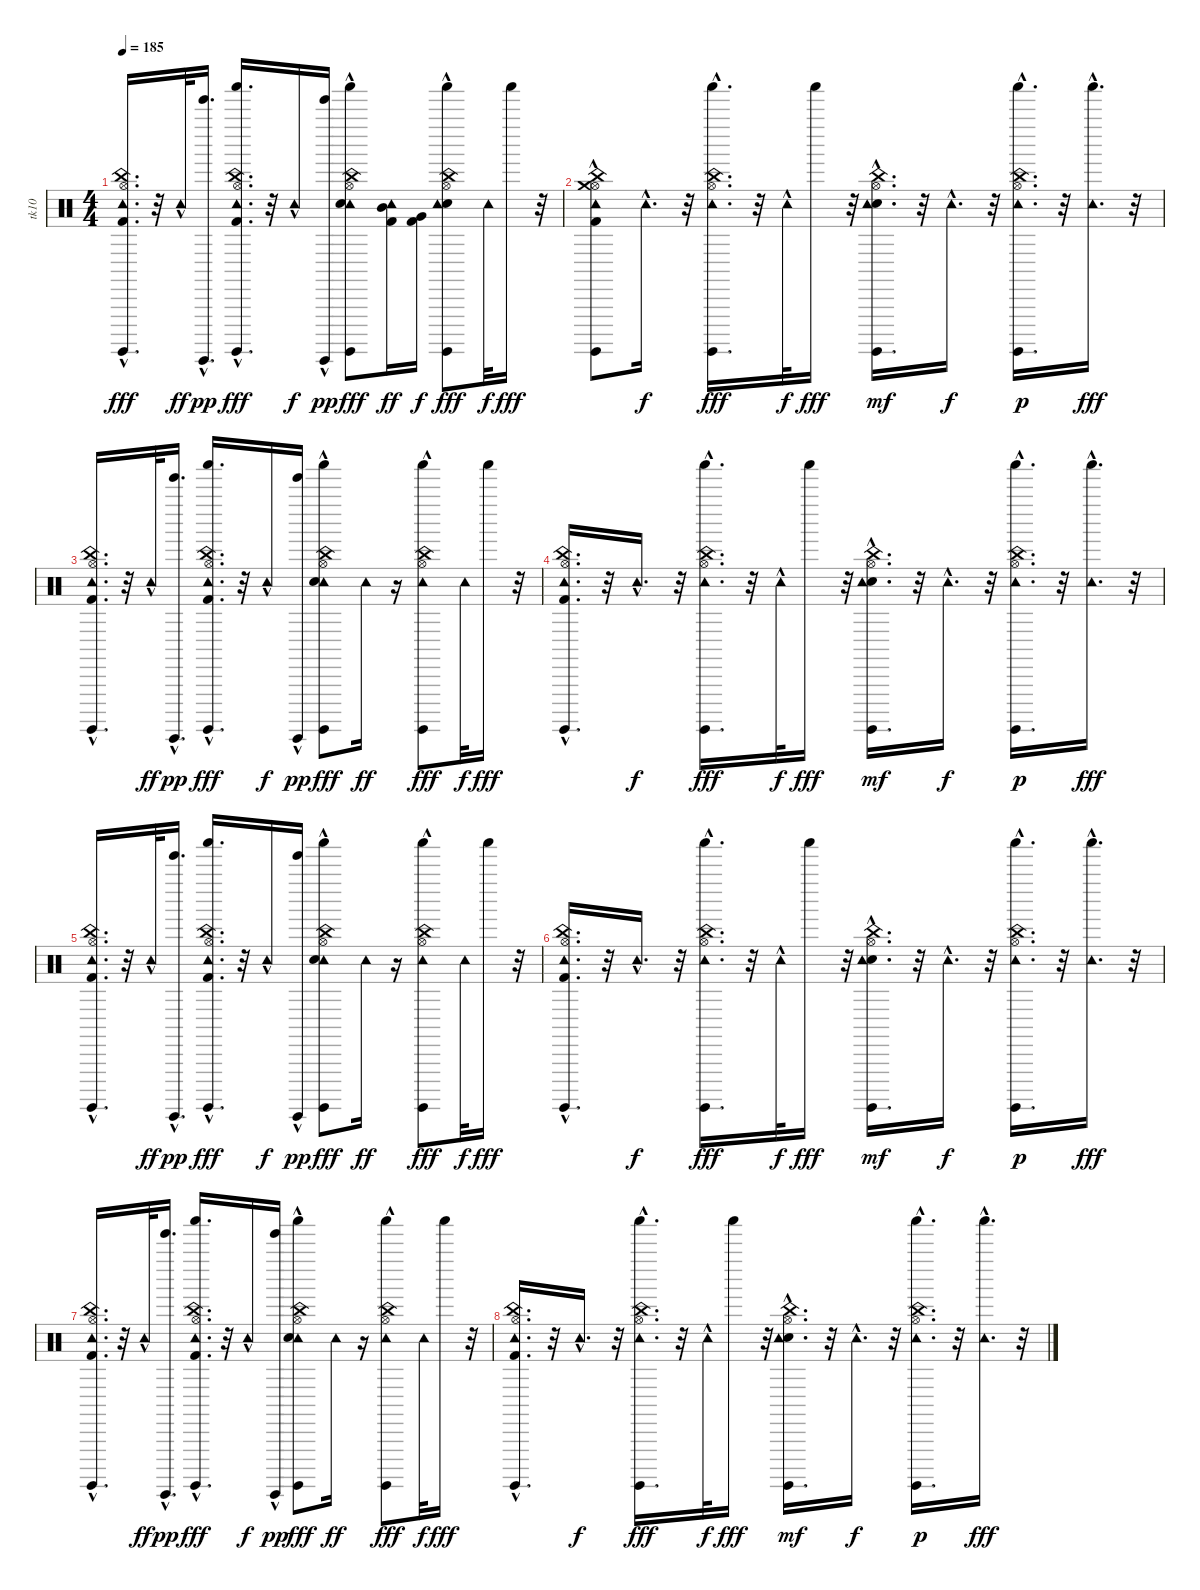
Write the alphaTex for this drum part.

\track ("tk10" "tk10") {instrument percussion}
\staff {score}
\articulation defaults
\ts (4 4)
\tempo 185
\clef neutral
\ks c
("Kick (hit) 2"{hac} "Hi-Hat (open)" "China (hit)" "Surdo (hit)" "Tambourine (hit)"{hac}).16{d dy fff} r.32 "Tambourine (hit)"{hac}.32{dy ff} ("Guiro (hit)" "Tinkle Bell (hit)"{hac}).16{d dy pp} ("Tambourine (hit)"{hac} "Shaker (hit)" "Kick (hit) 2"{hac} "Hi-Hat (open)" "China (hit)" "Surdo (hit)").16{d dy fff} r.32 "Tambourine (hit)"{hac}.16{dy f} ("Guiro (hit)" "Tinkle Bell (hit)"{hac}).16{dy pp} ("Tambourine (hit)"{hac} "Electric Snare (hit)" "Hi-Hat (open)" "China (hit)" "Shaker (hit)"{hac} "Surdo (hit)").8{dy fff} ("Tambourine (hit)" "Mid Tom (hit)" "Kick (hit) 2").16{dy ff} ("Kick (hit) 2" "Very Low Tom (hit)").16{dy f} ("Electric Snare (hit)"{hac} "Tambourine (hit)" "Shaker (hit)" "Hi-Hat (open)" "China (hit)" "Surdo (hit)"{hac}).8{dy fff} "Tambourine (hit)".32{dy f} "Shaker (hit)".16{dy fff} r.32 |
("Kick (hit) 2"{hac} "Hi-Hat (open)" "Crash medium (hit)"{hac} "Surdo (hit)" "China (hit)" "Tambourine (hit)"{hac}).8 "Tambourine (hit)"{hac}.16{d dy f} r.32 ("Tambourine (hit)"{hac} "Shaker (hit)" "Hi-Hat (open)" "China (hit)" "Surdo (hit)").16{d dy fff} r.32 "Tambourine (hit)"{hac}.32{dy f} "Shaker (hit)".16{dy fff} r.32 ("Electric Snare (hit)"{hac} "Hi-Hat (open)" "China (hit)" "Tambourine (hit)"{hac} "Surdo (hit)").16{d dy mf} r.32 "Tambourine (hit)"{hac}.16{d dy f} r.32 ("Shaker (hit)" "Surdo (hit)" "Tambourine (hit)"{hac} "Hi-Hat (open)" "China (hit)").16{d dy p} r.32 ("Tambourine (hit)"{hac} "Shaker (hit)").16{d dy fff} r.32 |
("Kick (hit) 2"{hac} "Hi-Hat (open)" "China (hit)" "Surdo (hit)" "Tambourine (hit)"{hac}).16{d} r.32 "Tambourine (hit)"{hac}.32{dy ff} ("Guiro (hit)" "Tinkle Bell (hit)"{hac}).16{d dy pp} ("Tambourine (hit)"{hac} "Shaker (hit)" "Kick (hit) 2"{hac} "Hi-Hat (open)" "China (hit)" "Surdo (hit)").16{d dy fff} r.32 "Tambourine (hit)"{hac}.16{dy f} ("Guiro (hit)" "Tinkle Bell (hit)"{hac}).16{dy pp} ("Tambourine (hit)"{hac} "Electric Snare (hit)" "Hi-Hat (open)" "China (hit)" "Shaker (hit)"{hac} "Surdo (hit)").8{dy fff} "Tambourine (hit)".16{dy ff} r.16 ("Tambourine (hit)" "Shaker (hit)" "Hi-Hat (open)" "China (hit)" "Surdo (hit)"{hac}).8{dy fff} "Tambourine (hit)".32{dy f} "Shaker (hit)".16{dy fff} r.32 |
("Kick (hit) 2"{hac} "Hi-Hat (open)" "Surdo (hit)" "China (hit)" "Tambourine (hit)"{hac}).16{d} r.32 "Tambourine (hit)"{hac}.16{d dy f} r.32 ("Tambourine (hit)"{hac} "Shaker (hit)" "Hi-Hat (open)" "China (hit)" "Surdo (hit)").16{d dy fff} r.32 "Tambourine (hit)"{hac}.32{dy f} "Shaker (hit)".16{dy fff} r.32 ("Electric Snare (hit)"{hac} "Hi-Hat (open)" "China (hit)" "Tambourine (hit)"{hac} "Surdo (hit)").16{d dy mf} r.32 "Tambourine (hit)"{hac}.16{d dy f} r.32 ("Shaker (hit)" "Surdo (hit)" "Tambourine (hit)"{hac} "Hi-Hat (open)" "China (hit)").16{d dy p} r.32 ("Tambourine (hit)"{hac} "Shaker (hit)").16{d dy fff} r.32 |
("Kick (hit) 2"{hac} "Hi-Hat (open)" "China (hit)" "Surdo (hit)" "Tambourine (hit)"{hac}).16{d} r.32 "Tambourine (hit)"{hac}.32{dy ff} ("Guiro (hit)" "Tinkle Bell (hit)"{hac}).16{d dy pp} ("Tambourine (hit)"{hac} "Shaker (hit)" "Kick (hit) 2"{hac} "Hi-Hat (open)" "China (hit)" "Surdo (hit)").16{d dy fff} r.32 "Tambourine (hit)"{hac}.16{dy f} ("Guiro (hit)" "Tinkle Bell (hit)"{hac}).16{dy pp} ("Tambourine (hit)"{hac} "Electric Snare (hit)" "Hi-Hat (open)" "China (hit)" "Shaker (hit)"{hac} "Surdo (hit)").8{dy fff} "Tambourine (hit)".16{dy ff} r.16 ("Tambourine (hit)" "Shaker (hit)" "Hi-Hat (open)" "China (hit)" "Surdo (hit)"{hac}).8{dy fff} "Tambourine (hit)".32{dy f} "Shaker (hit)".16{dy fff} r.32 |
("Kick (hit) 2"{hac} "Hi-Hat (open)" "Surdo (hit)" "China (hit)" "Tambourine (hit)"{hac}).16{d} r.32 "Tambourine (hit)"{hac}.16{d dy f} r.32 ("Tambourine (hit)"{hac} "Shaker (hit)" "Hi-Hat (open)" "China (hit)" "Surdo (hit)").16{d dy fff} r.32 "Tambourine (hit)"{hac}.32{dy f} "Shaker (hit)".16{dy fff} r.32 ("Electric Snare (hit)"{hac} "Hi-Hat (open)" "China (hit)" "Tambourine (hit)"{hac} "Surdo (hit)").16{d dy mf} r.32 "Tambourine (hit)"{hac}.16{d dy f} r.32 ("Shaker (hit)" "Surdo (hit)" "Tambourine (hit)"{hac} "Hi-Hat (open)" "China (hit)").16{d dy p} r.32 ("Tambourine (hit)"{hac} "Shaker (hit)").16{d dy fff} r.32 |
("Kick (hit) 2"{hac} "Hi-Hat (open)" "China (hit)" "Surdo (hit)" "Tambourine (hit)"{hac}).16{d} r.32 "Tambourine (hit)"{hac}.32{dy ff} ("Guiro (hit)" "Tinkle Bell (hit)"{hac}).16{d dy pp} ("Tambourine (hit)"{hac} "Shaker (hit)" "Kick (hit) 2"{hac} "Hi-Hat (open)" "China (hit)" "Surdo (hit)").16{d dy fff} r.32 "Tambourine (hit)"{hac}.16{dy f} ("Guiro (hit)" "Tinkle Bell (hit)"{hac}).16{dy pp} ("Tambourine (hit)"{hac} "Electric Snare (hit)" "Hi-Hat (open)" "China (hit)" "Shaker (hit)"{hac} "Surdo (hit)").8{dy fff} "Tambourine (hit)".16{dy ff} r.16 ("Tambourine (hit)" "Shaker (hit)" "Hi-Hat (open)" "China (hit)" "Surdo (hit)"{hac}).8{dy fff} "Tambourine (hit)".32{dy f} "Shaker (hit)".16{dy fff} r.32 |
("Kick (hit) 2"{hac} "Hi-Hat (open)" "Surdo (hit)" "China (hit)" "Tambourine (hit)"{hac}).16{d} r.32 "Tambourine (hit)"{hac}.16{d dy f} r.32 ("Tambourine (hit)"{hac} "Shaker (hit)" "Hi-Hat (open)" "China (hit)" "Surdo (hit)").16{d dy fff} r.32 "Tambourine (hit)"{hac}.32{dy f} "Shaker (hit)".16{dy fff} r.32 ("Electric Snare (hit)"{hac} "Hi-Hat (open)" "China (hit)" "Tambourine (hit)"{hac} "Surdo (hit)").16{d dy mf} r.32 "Tambourine (hit)"{hac}.16{d dy f} r.32 ("Shaker (hit)" "Surdo (hit)" "Tambourine (hit)"{hac} "Hi-Hat (open)" "China (hit)").16{d dy p} r.32 ("Tambourine (hit)"{hac} "Shaker (hit)").16{d dy fff} r.32
